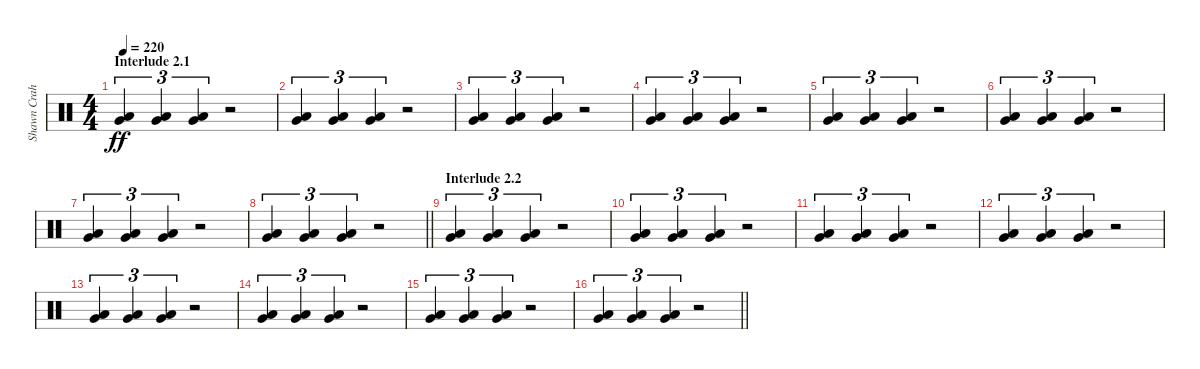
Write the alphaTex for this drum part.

\track ("Shawn Crahan" "Shawn Crah") {instrument percussion}
\staff {score}
\articulation defaults
\ts (4 4)
\section ("" "Interlude 2.1")
\tempo 220
\clef neutral
\ks c
("Very Low Tom (hit)" "Low Floor Tom (hit)").4{tu (3 2) dy ff} ("Very Low Tom (hit)" "Low Floor Tom (hit)").4{tu (3 2)} ("Very Low Tom (hit)" "Low Floor Tom (hit)").4{tu (3 2)} r.2 |
("Very Low Tom (hit)" "Low Floor Tom (hit)").4{tu (3 2)} ("Very Low Tom (hit)" "Low Floor Tom (hit)").4{tu (3 2)} ("Very Low Tom (hit)" "Low Floor Tom (hit)").4{tu (3 2)} r.2 |
("Very Low Tom (hit)" "Low Floor Tom (hit)").4{tu (3 2)} ("Very Low Tom (hit)" "Low Floor Tom (hit)").4{tu (3 2)} ("Very Low Tom (hit)" "Low Floor Tom (hit)").4{tu (3 2)} r.2 |
("Very Low Tom (hit)" "Low Floor Tom (hit)").4{tu (3 2)} ("Very Low Tom (hit)" "Low Floor Tom (hit)").4{tu (3 2)} ("Very Low Tom (hit)" "Low Floor Tom (hit)").4{tu (3 2)} r.2 |
("Very Low Tom (hit)" "Low Floor Tom (hit)").4{tu (3 2)} ("Very Low Tom (hit)" "Low Floor Tom (hit)").4{tu (3 2)} ("Very Low Tom (hit)" "Low Floor Tom (hit)").4{tu (3 2)} r.2 |
("Very Low Tom (hit)" "Low Floor Tom (hit)").4{tu (3 2)} ("Very Low Tom (hit)" "Low Floor Tom (hit)").4{tu (3 2)} ("Very Low Tom (hit)" "Low Floor Tom (hit)").4{tu (3 2)} r.2 |
("Very Low Tom (hit)" "Low Floor Tom (hit)").4{tu (3 2)} ("Very Low Tom (hit)" "Low Floor Tom (hit)").4{tu (3 2)} ("Very Low Tom (hit)" "Low Floor Tom (hit)").4{tu (3 2)} r.2 |
\barLineRight lightlight
("Very Low Tom (hit)" "Low Floor Tom (hit)").4{tu (3 2)} ("Very Low Tom (hit)" "Low Floor Tom (hit)").4{tu (3 2)} ("Very Low Tom (hit)" "Low Floor Tom (hit)").4{tu (3 2)} r.2 |
\section ("" "Interlude 2.2")
("Very Low Tom (hit)" "Low Floor Tom (hit)").4{tu (3 2)} ("Very Low Tom (hit)" "Low Floor Tom (hit)").4{tu (3 2)} ("Very Low Tom (hit)" "Low Floor Tom (hit)").4{tu (3 2)} r.2 |
("Very Low Tom (hit)" "Low Floor Tom (hit)").4{tu (3 2)} ("Very Low Tom (hit)" "Low Floor Tom (hit)").4{tu (3 2)} ("Very Low Tom (hit)" "Low Floor Tom (hit)").4{tu (3 2)} r.2 |
("Very Low Tom (hit)" "Low Floor Tom (hit)").4{tu (3 2)} ("Very Low Tom (hit)" "Low Floor Tom (hit)").4{tu (3 2)} ("Very Low Tom (hit)" "Low Floor Tom (hit)").4{tu (3 2)} r.2 |
("Very Low Tom (hit)" "Low Floor Tom (hit)").4{tu (3 2)} ("Very Low Tom (hit)" "Low Floor Tom (hit)").4{tu (3 2)} ("Very Low Tom (hit)" "Low Floor Tom (hit)").4{tu (3 2)} r.2 |
("Very Low Tom (hit)" "Low Floor Tom (hit)").4{tu (3 2)} ("Very Low Tom (hit)" "Low Floor Tom (hit)").4{tu (3 2)} ("Very Low Tom (hit)" "Low Floor Tom (hit)").4{tu (3 2)} r.2 |
("Very Low Tom (hit)" "Low Floor Tom (hit)").4{tu (3 2)} ("Very Low Tom (hit)" "Low Floor Tom (hit)").4{tu (3 2)} ("Very Low Tom (hit)" "Low Floor Tom (hit)").4{tu (3 2)} r.2 |
("Very Low Tom (hit)" "Low Floor Tom (hit)").4{tu (3 2)} ("Very Low Tom (hit)" "Low Floor Tom (hit)").4{tu (3 2)} ("Very Low Tom (hit)" "Low Floor Tom (hit)").4{tu (3 2)} r.2 |
\barLineRight lightlight
("Very Low Tom (hit)" "Low Floor Tom (hit)").4{tu (3 2)} ("Very Low Tom (hit)" "Low Floor Tom (hit)").4{tu (3 2)} ("Very Low Tom (hit)" "Low Floor Tom (hit)").4{tu (3 2)} r.2
